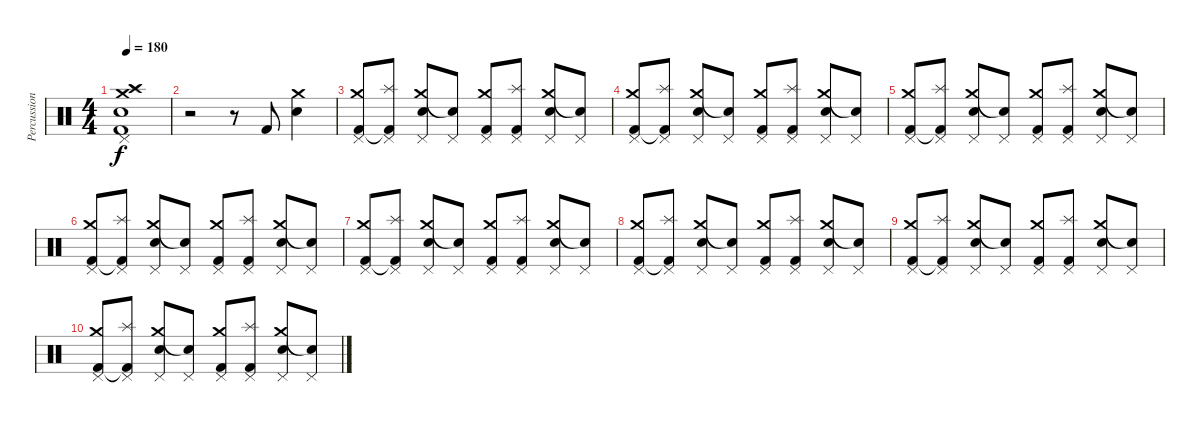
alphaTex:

\track ("Percussion" "Percussion") {instrument percussion}
\staff
\articulation defaults
\ts (4 4)
\tempo 180
\clef neutral
\ks c
("Pedal Hi-Hat (hit)" "Crash high (hit)" "Crash medium (hit)" "Splash (hit)" "Snare (hit) 2" "Kick (hit) 2").1{dy f} |
r.2 r.8 "Kick (hit) 2".8 ("Crash medium (hit)" "Snare (hit) 2").4 |
("Pedal Hi-Hat (hit)" "Crash medium (hit)" "Kick (hit) 2").8 ("Pedal Hi-Hat (hit)" "Splash (hit)" "Kick (hit) 2"{t}).8 ("Pedal Hi-Hat (hit)" "Crash medium (hit)" "Snare (hit) 2").8 ("Pedal Hi-Hat (hit)" "Snare (hit) 2"{t}).8 ("Pedal Hi-Hat (hit)" "Crash medium (hit)" "Kick (hit) 2").8 ("Pedal Hi-Hat (hit)" "Splash (hit)" "Kick (hit) 2").8 ("Pedal Hi-Hat (hit)" "Crash medium (hit)" "Snare (hit) 2").8 ("Pedal Hi-Hat (hit)" "Snare (hit) 2"{t}).8 |
("Pedal Hi-Hat (hit)" "Crash medium (hit)" "Kick (hit) 2").8 ("Pedal Hi-Hat (hit)" "Splash (hit)" "Kick (hit) 2"{t}).8 ("Pedal Hi-Hat (hit)" "Crash medium (hit)" "Snare (hit) 2").8 ("Pedal Hi-Hat (hit)" "Snare (hit) 2"{t}).8 ("Pedal Hi-Hat (hit)" "Crash medium (hit)" "Kick (hit) 2").8 ("Pedal Hi-Hat (hit)" "Splash (hit)" "Kick (hit) 2").8 ("Pedal Hi-Hat (hit)" "Crash medium (hit)" "Snare (hit) 2").8 ("Pedal Hi-Hat (hit)" "Snare (hit) 2"{t}).8 |
("Pedal Hi-Hat (hit)" "Crash medium (hit)" "Kick (hit) 2").8 ("Pedal Hi-Hat (hit)" "Splash (hit)" "Kick (hit) 2"{t}).8 ("Pedal Hi-Hat (hit)" "Crash medium (hit)" "Snare (hit) 2").8 ("Pedal Hi-Hat (hit)" "Snare (hit) 2"{t}).8 ("Pedal Hi-Hat (hit)" "Crash medium (hit)" "Kick (hit) 2").8 ("Pedal Hi-Hat (hit)" "Splash (hit)" "Kick (hit) 2").8 ("Pedal Hi-Hat (hit)" "Crash medium (hit)" "Snare (hit) 2").8 ("Pedal Hi-Hat (hit)" "Snare (hit) 2"{t}).8 |
("Pedal Hi-Hat (hit)" "Crash medium (hit)" "Kick (hit) 2").8 ("Pedal Hi-Hat (hit)" "Splash (hit)" "Kick (hit) 2"{t}).8 ("Pedal Hi-Hat (hit)" "Crash medium (hit)" "Snare (hit) 2").8 ("Pedal Hi-Hat (hit)" "Snare (hit) 2"{t}).8 ("Pedal Hi-Hat (hit)" "Crash medium (hit)" "Kick (hit) 2").8 ("Pedal Hi-Hat (hit)" "Splash (hit)" "Kick (hit) 2").8 ("Pedal Hi-Hat (hit)" "Crash medium (hit)" "Snare (hit) 2").8 ("Pedal Hi-Hat (hit)" "Snare (hit) 2"{t}).8 |
("Pedal Hi-Hat (hit)" "Crash medium (hit)" "Kick (hit) 2").8 ("Pedal Hi-Hat (hit)" "Splash (hit)" "Kick (hit) 2"{t}).8 ("Pedal Hi-Hat (hit)" "Crash medium (hit)" "Snare (hit) 2").8 ("Pedal Hi-Hat (hit)" "Snare (hit) 2"{t}).8 ("Pedal Hi-Hat (hit)" "Crash medium (hit)" "Kick (hit) 2").8 ("Pedal Hi-Hat (hit)" "Splash (hit)" "Kick (hit) 2").8 ("Pedal Hi-Hat (hit)" "Crash medium (hit)" "Snare (hit) 2").8 ("Pedal Hi-Hat (hit)" "Snare (hit) 2"{t}).8 |
("Pedal Hi-Hat (hit)" "Crash medium (hit)" "Kick (hit) 2").8 ("Pedal Hi-Hat (hit)" "Splash (hit)" "Kick (hit) 2"{t}).8 ("Pedal Hi-Hat (hit)" "Crash medium (hit)" "Snare (hit) 2").8 ("Pedal Hi-Hat (hit)" "Snare (hit) 2"{t}).8 ("Pedal Hi-Hat (hit)" "Crash medium (hit)" "Kick (hit) 2").8 ("Pedal Hi-Hat (hit)" "Splash (hit)" "Kick (hit) 2").8 ("Pedal Hi-Hat (hit)" "Crash medium (hit)" "Snare (hit) 2").8 ("Pedal Hi-Hat (hit)" "Snare (hit) 2"{t}).8 |
("Pedal Hi-Hat (hit)" "Crash medium (hit)" "Kick (hit) 2").8 ("Pedal Hi-Hat (hit)" "Splash (hit)" "Kick (hit) 2"{t}).8 ("Pedal Hi-Hat (hit)" "Crash medium (hit)" "Snare (hit) 2").8 ("Pedal Hi-Hat (hit)" "Snare (hit) 2"{t}).8 ("Pedal Hi-Hat (hit)" "Crash medium (hit)" "Kick (hit) 2").8 ("Pedal Hi-Hat (hit)" "Splash (hit)" "Kick (hit) 2").8 ("Pedal Hi-Hat (hit)" "Crash medium (hit)" "Snare (hit) 2").8 ("Pedal Hi-Hat (hit)" "Snare (hit) 2"{t}).8 |
("Pedal Hi-Hat (hit)" "Crash medium (hit)" "Kick (hit) 2").8 ("Pedal Hi-Hat (hit)" "Splash (hit)" "Kick (hit) 2"{t}).8 ("Pedal Hi-Hat (hit)" "Crash medium (hit)" "Snare (hit) 2").8 ("Pedal Hi-Hat (hit)" "Snare (hit) 2"{t}).8 ("Pedal Hi-Hat (hit)" "Crash medium (hit)" "Kick (hit) 2").8 ("Pedal Hi-Hat (hit)" "Splash (hit)" "Kick (hit) 2").8 ("Pedal Hi-Hat (hit)" "Crash medium (hit)" "Snare (hit) 2").8 ("Pedal Hi-Hat (hit)" "Snare (hit) 2"{t}).8
